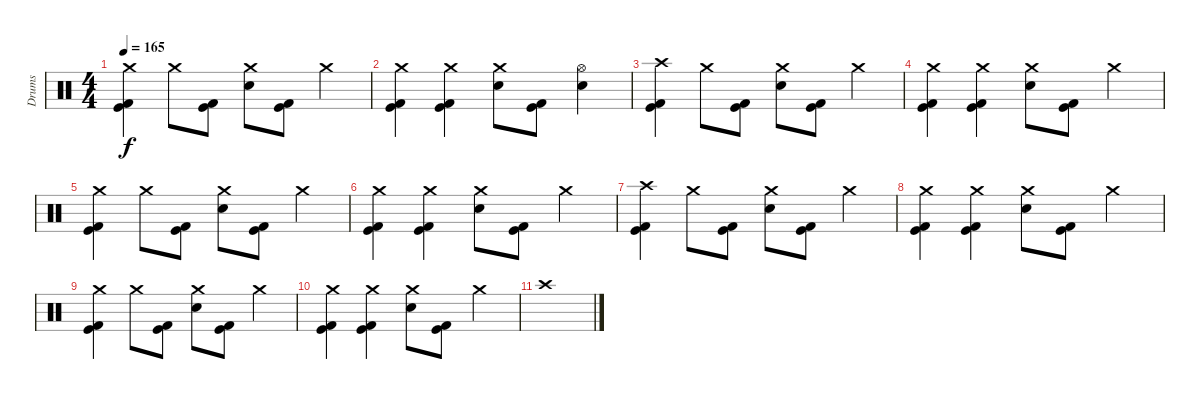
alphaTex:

\track ("Drums" "Drums") {instrument percussion}
\staff {score}
\articulation defaults
\ts (4 4)
\tempo 165
\clef neutral
\ks c
("Crash medium (hit)" "Kick (hit) 2" "Kick (hit)").4{dy f} "Crash medium (hit)".8 ("Kick (hit)" "Kick (hit) 2").8 ("Crash medium (hit)" "Electric Snare (hit)").8 ("Kick (hit)" "Kick (hit) 2").8 "Crash medium (hit)".4 |
("Crash medium (hit)" "Kick (hit)" "Kick (hit) 2").4 ("Crash medium (hit)" "Kick (hit)" "Kick (hit) 2").4 ("Crash medium (hit)" "Electric Snare (hit)").8 ("Kick (hit)" "Kick (hit) 2").8 ("Hi-Hat (open)" "Electric Snare (hit)").4 |
("Crash high (hit)" "Kick (hit) 2" "Kick (hit)").4 "Crash medium (hit)".8 ("Kick (hit)" "Kick (hit) 2").8 ("Crash medium (hit)" "Electric Snare (hit)").8 ("Kick (hit)" "Kick (hit) 2").8 "Crash medium (hit)".4 |
("Crash medium (hit)" "Kick (hit)" "Kick (hit) 2").4 ("Crash medium (hit)" "Kick (hit)" "Kick (hit) 2").4 ("Crash medium (hit)" "Electric Snare (hit)").8 ("Kick (hit)" "Kick (hit) 2").8 "Crash medium (hit)".4 |
("Crash medium (hit)" "Kick (hit) 2" "Kick (hit)").4 "Crash medium (hit)".8 ("Kick (hit)" "Kick (hit) 2").8 ("Crash medium (hit)" "Electric Snare (hit)").8 ("Kick (hit)" "Kick (hit) 2").8 "Crash medium (hit)".4 |
("Crash medium (hit)" "Kick (hit)" "Kick (hit) 2").4 ("Crash medium (hit)" "Kick (hit)" "Kick (hit) 2").4 ("Crash medium (hit)" "Electric Snare (hit)").8 ("Kick (hit)" "Kick (hit) 2").8 "Crash medium (hit)".4 |
("Crash high (hit)" "Kick (hit) 2" "Kick (hit)").4 "Crash medium (hit)".8 ("Kick (hit)" "Kick (hit) 2").8 ("Crash medium (hit)" "Electric Snare (hit)").8 ("Kick (hit)" "Kick (hit) 2").8 "Crash medium (hit)".4 |
("Crash medium (hit)" "Kick (hit)" "Kick (hit) 2").4 ("Crash medium (hit)" "Kick (hit)" "Kick (hit) 2").4 ("Crash medium (hit)" "Electric Snare (hit)").8 ("Kick (hit)" "Kick (hit) 2").8 "Crash medium (hit)".4 |
("Crash medium (hit)" "Kick (hit) 2" "Kick (hit)").4 "Crash medium (hit)".8 ("Kick (hit)" "Kick (hit) 2").8 ("Crash medium (hit)" "Electric Snare (hit)").8 ("Kick (hit)" "Kick (hit) 2").8 "Crash medium (hit)".4 |
("Crash medium (hit)" "Kick (hit)" "Kick (hit) 2").4 ("Crash medium (hit)" "Kick (hit)" "Kick (hit) 2").4 ("Crash medium (hit)" "Electric Snare (hit)").8 ("Kick (hit)" "Kick (hit) 2").8 "Crash medium (hit)".4 |
"Crash high (hit)".1
